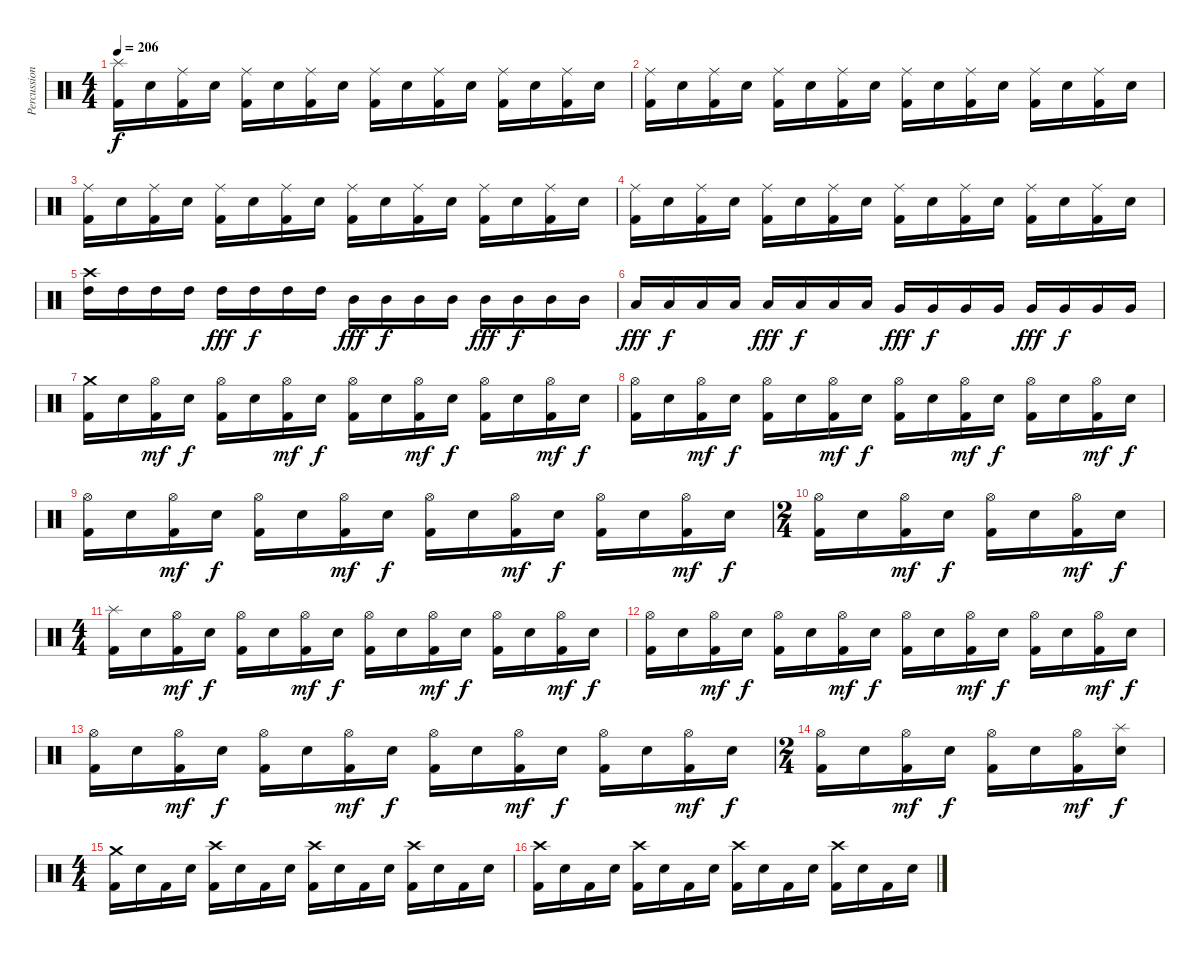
\track ("Percussion" "Percussion") {instrument percussion}
\staff {score}
\articulation defaults
\ts (4 4)
\tempo 206
\clef neutral
\ks c
("Splash (hit)" "Kick (hit) 2").16{dy f} "Electric Snare (hit)".16 ("Ride (middle)" "Kick (hit) 2").16 "Electric Snare (hit)".16 ("Ride (middle)" "Kick (hit) 2").16 "Electric Snare (hit)".16 ("Ride (middle)" "Kick (hit) 2").16 "Electric Snare (hit)".16 ("Ride (middle)" "Kick (hit) 2").16 "Electric Snare (hit)".16 ("Ride (middle)" "Kick (hit) 2").16 "Electric Snare (hit)".16 ("Ride (middle)" "Kick (hit) 2").16 "Electric Snare (hit)".16 ("Ride (middle)" "Kick (hit) 2").16 "Electric Snare (hit)".16 |
("Ride (middle)" "Kick (hit) 2").16 "Electric Snare (hit)".16 ("Ride (middle)" "Kick (hit) 2").16 "Electric Snare (hit)".16 ("Ride (middle)" "Kick (hit) 2").16 "Electric Snare (hit)".16 ("Ride (middle)" "Kick (hit) 2").16 "Electric Snare (hit)".16 ("Ride (middle)" "Kick (hit) 2").16 "Electric Snare (hit)".16 ("Ride (middle)" "Kick (hit) 2").16 "Electric Snare (hit)".16 ("Ride (middle)" "Kick (hit) 2").16 "Electric Snare (hit)".16 ("Ride (middle)" "Kick (hit) 2").16 "Electric Snare (hit)".16 |
("Ride (middle)" "Kick (hit) 2").16 "Electric Snare (hit)".16 ("Ride (middle)" "Kick (hit) 2").16 "Electric Snare (hit)".16 ("Ride (middle)" "Kick (hit) 2").16 "Electric Snare (hit)".16 ("Ride (middle)" "Kick (hit) 2").16 "Electric Snare (hit)".16 ("Ride (middle)" "Kick (hit) 2").16 "Electric Snare (hit)".16 ("Ride (middle)" "Kick (hit) 2").16 "Electric Snare (hit)".16 ("Ride (middle)" "Kick (hit) 2").16 "Electric Snare (hit)".16 ("Ride (middle)" "Kick (hit) 2").16 "Electric Snare (hit)".16 |
("Ride (middle)" "Kick (hit) 2").16 "Electric Snare (hit)".16 ("Ride (middle)" "Kick (hit) 2").16 "Electric Snare (hit)".16 ("Ride (middle)" "Kick (hit) 2").16 "Electric Snare (hit)".16 ("Ride (middle)" "Kick (hit) 2").16 "Electric Snare (hit)".16 ("Ride (middle)" "Kick (hit) 2").16 "Electric Snare (hit)".16 ("Ride (middle)" "Kick (hit) 2").16 "Electric Snare (hit)".16 ("Ride (middle)" "Kick (hit) 2").16 "Electric Snare (hit)".16 ("Ride (middle)" "Kick (hit) 2").16 "Electric Snare (hit)".16 |
("Crash high (hit)" "High Tom (hit)").16 "High Tom (hit)".16 "High Tom (hit)".16 "High Tom (hit)".16 "High Tom (hit)".16{dy fff} "High Tom (hit)".16{dy f} "High Tom (hit)".16 "High Tom (hit)".16 "Mid Tom (hit)".16{dy fff} "Mid Tom (hit)".16{dy f} "Mid Tom (hit)".16 "Mid Tom (hit)".16 "Mid Tom (hit)".16{dy fff} "Mid Tom (hit)".16{dy f} "Mid Tom (hit)".16 "Mid Tom (hit)".16 |
"Low Tom (hit)".16{dy fff} "Low Tom (hit)".16{dy f} "Low Tom (hit)".16 "Low Tom (hit)".16 "Low Tom (hit)".16{dy fff} "Low Tom (hit)".16{dy f} "Low Tom (hit)".16 "Low Tom (hit)".16 "Very Low Tom (hit)".16{dy fff} "Very Low Tom (hit)".16{dy f} "Very Low Tom (hit)".16 "Very Low Tom (hit)".16 "Very Low Tom (hit)".16{dy fff} "Very Low Tom (hit)".16{dy f} "Very Low Tom (hit)".16 "Very Low Tom (hit)".16 |
("Crash medium (hit)" "Kick (hit) 2").16 "Electric Snare (hit)".16 ("Hi-Hat (open)" "Kick (hit) 2").16{dy mf} "Electric Snare (hit)".16{dy f} ("Hi-Hat (open)" "Kick (hit) 2").16 "Electric Snare (hit)".16 ("Hi-Hat (open)" "Kick (hit) 2").16{dy mf} "Electric Snare (hit)".16{dy f} ("Hi-Hat (open)" "Kick (hit) 2").16 "Electric Snare (hit)".16 ("Hi-Hat (open)" "Kick (hit) 2").16{dy mf} "Electric Snare (hit)".16{dy f} ("Hi-Hat (open)" "Kick (hit) 2").16 "Electric Snare (hit)".16 ("Hi-Hat (open)" "Kick (hit) 2").16{dy mf} "Electric Snare (hit)".16{dy f} |
("Hi-Hat (open)" "Kick (hit) 2").16 "Electric Snare (hit)".16 ("Hi-Hat (open)" "Kick (hit) 2").16{dy mf} "Electric Snare (hit)".16{dy f} ("Hi-Hat (open)" "Kick (hit) 2").16 "Electric Snare (hit)".16 ("Hi-Hat (open)" "Kick (hit) 2").16{dy mf} "Electric Snare (hit)".16{dy f} ("Hi-Hat (open)" "Kick (hit) 2").16 "Electric Snare (hit)".16 ("Hi-Hat (open)" "Kick (hit) 2").16{dy mf} "Electric Snare (hit)".16{dy f} ("Hi-Hat (open)" "Kick (hit) 2").16 "Electric Snare (hit)".16 ("Hi-Hat (open)" "Kick (hit) 2").16{dy mf} "Electric Snare (hit)".16{dy f} |
("Hi-Hat (open)" "Kick (hit) 2").16 "Electric Snare (hit)".16 ("Hi-Hat (open)" "Kick (hit) 2").16{dy mf} "Electric Snare (hit)".16{dy f} ("Hi-Hat (open)" "Kick (hit) 2").16 "Electric Snare (hit)".16 ("Hi-Hat (open)" "Kick (hit) 2").16{dy mf} "Electric Snare (hit)".16{dy f} ("Hi-Hat (open)" "Kick (hit) 2").16 "Electric Snare (hit)".16 ("Hi-Hat (open)" "Kick (hit) 2").16{dy mf} "Electric Snare (hit)".16{dy f} ("Hi-Hat (open)" "Kick (hit) 2").16 "Electric Snare (hit)".16 ("Hi-Hat (open)" "Kick (hit) 2").16{dy mf} "Electric Snare (hit)".16{dy f} |
\ts (2 4)
("Hi-Hat (open)" "Kick (hit) 2").16 "Electric Snare (hit)".16 ("Hi-Hat (open)" "Kick (hit) 2").16{dy mf} "Electric Snare (hit)".16{dy f} ("Hi-Hat (open)" "Kick (hit) 2").16 "Electric Snare (hit)".16 ("Hi-Hat (open)" "Kick (hit) 2").16{dy mf} "Electric Snare (hit)".16{dy f} |
\ts (4 4)
("Splash (hit)" "Kick (hit) 2").16 "Electric Snare (hit)".16 ("Hi-Hat (open)" "Kick (hit) 2").16{dy mf} "Electric Snare (hit)".16{dy f} ("Hi-Hat (open)" "Kick (hit) 2").16 "Electric Snare (hit)".16 ("Hi-Hat (open)" "Kick (hit) 2").16{dy mf} "Electric Snare (hit)".16{dy f} ("Hi-Hat (open)" "Kick (hit) 2").16 "Electric Snare (hit)".16 ("Hi-Hat (open)" "Kick (hit) 2").16{dy mf} "Electric Snare (hit)".16{dy f} ("Hi-Hat (open)" "Kick (hit) 2").16 "Electric Snare (hit)".16 ("Hi-Hat (open)" "Kick (hit) 2").16{dy mf} "Electric Snare (hit)".16{dy f} |
("Hi-Hat (open)" "Kick (hit) 2").16 "Electric Snare (hit)".16 ("Hi-Hat (open)" "Kick (hit) 2").16{dy mf} "Electric Snare (hit)".16{dy f} ("Hi-Hat (open)" "Kick (hit) 2").16 "Electric Snare (hit)".16 ("Hi-Hat (open)" "Kick (hit) 2").16{dy mf} "Electric Snare (hit)".16{dy f} ("Hi-Hat (open)" "Kick (hit) 2").16 "Electric Snare (hit)".16 ("Hi-Hat (open)" "Kick (hit) 2").16{dy mf} "Electric Snare (hit)".16{dy f} ("Hi-Hat (open)" "Kick (hit) 2").16 "Electric Snare (hit)".16 ("Hi-Hat (open)" "Kick (hit) 2").16{dy mf} "Electric Snare (hit)".16{dy f} |
("Hi-Hat (open)" "Kick (hit) 2").16 "Electric Snare (hit)".16 ("Hi-Hat (open)" "Kick (hit) 2").16{dy mf} "Electric Snare (hit)".16{dy f} ("Hi-Hat (open)" "Kick (hit) 2").16 "Electric Snare (hit)".16 ("Hi-Hat (open)" "Kick (hit) 2").16{dy mf} "Electric Snare (hit)".16{dy f} ("Hi-Hat (open)" "Kick (hit) 2").16 "Electric Snare (hit)".16 ("Hi-Hat (open)" "Kick (hit) 2").16{dy mf} "Electric Snare (hit)".16{dy f} ("Hi-Hat (open)" "Kick (hit) 2").16 "Electric Snare (hit)".16 ("Hi-Hat (open)" "Kick (hit) 2").16{dy mf} "Electric Snare (hit)".16{dy f} |
\ts (2 4)
("Hi-Hat (open)" "Kick (hit) 2").16 "Electric Snare (hit)".16 ("Hi-Hat (open)" "Kick (hit) 2").16{dy mf} "Electric Snare (hit)".16{dy f} ("Hi-Hat (open)" "Kick (hit) 2").16 "Electric Snare (hit)".16 ("Hi-Hat (open)" "Kick (hit) 2").16{dy mf} ("Splash (hit)" "Electric Snare (hit)").16{dy f} |
\ts (4 4)
("Crash medium (hit)" "Kick (hit) 2").16 "Electric Snare (hit)".16 "Kick (hit) 2".16 "Electric Snare (hit)".16 ("Crash high (hit)" "Kick (hit) 2").16 "Electric Snare (hit)".16 "Kick (hit) 2".16 "Electric Snare (hit)".16 ("Crash high (hit)" "Kick (hit) 2").16 "Electric Snare (hit)".16 "Kick (hit) 2".16 "Electric Snare (hit)".16 ("Crash high (hit)" "Kick (hit) 2").16 "Electric Snare (hit)".16 "Kick (hit) 2".16 "Electric Snare (hit)".16 |
("Crash high (hit)" "Kick (hit) 2").16 "Electric Snare (hit)".16 "Kick (hit) 2".16 "Electric Snare (hit)".16 ("Crash high (hit)" "Kick (hit) 2").16 "Electric Snare (hit)".16 "Kick (hit) 2".16 "Electric Snare (hit)".16 ("Crash high (hit)" "Kick (hit) 2").16 "Electric Snare (hit)".16 "Kick (hit) 2".16 "Electric Snare (hit)".16 ("Crash high (hit)" "Kick (hit) 2").16 "Electric Snare (hit)".16 "Kick (hit) 2".16 "Electric Snare (hit)".16
